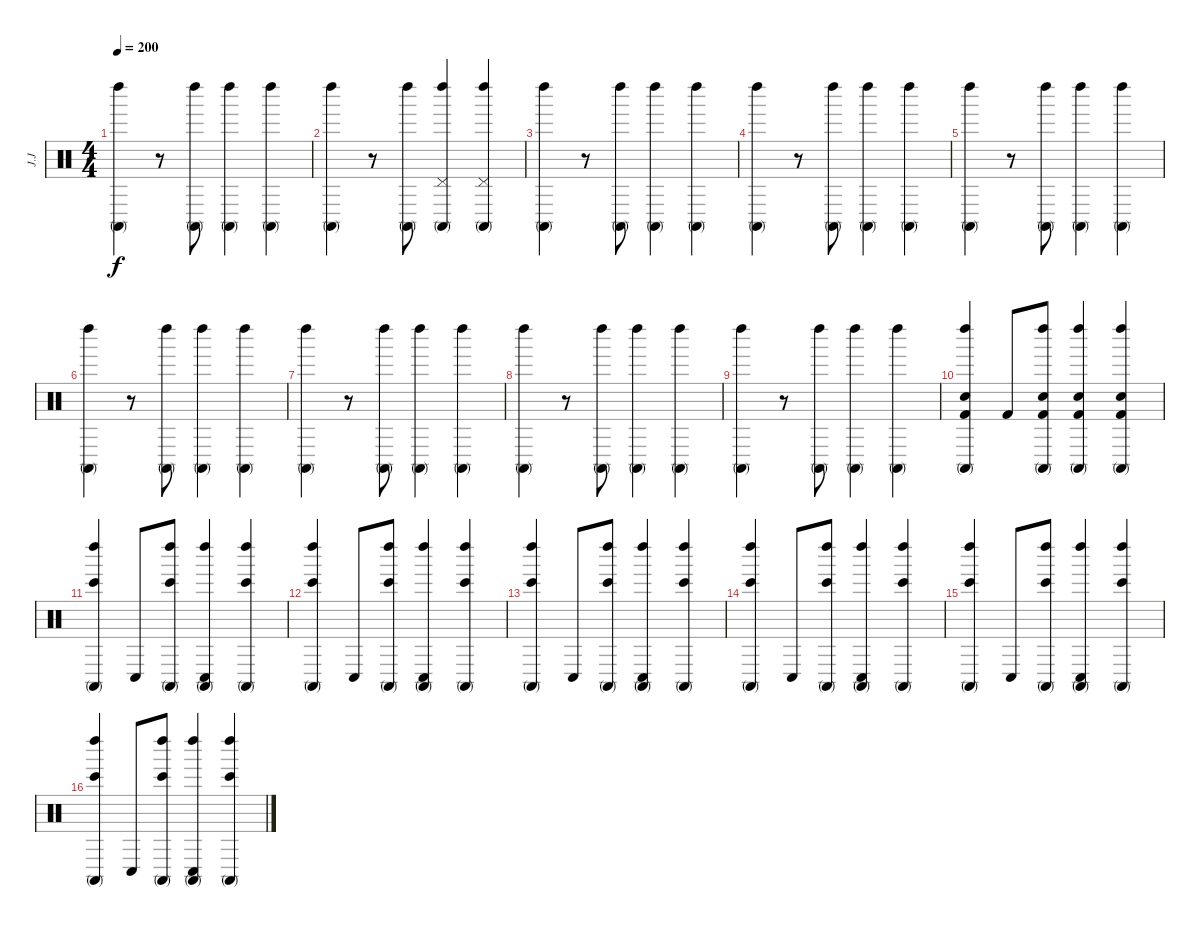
\track ("J.J" "J.J") {instrument percussion}
\staff {score}
\articulation defaults
\ts (4 4)
\tempo 200
\clef neutral
\ks c
("Conga high (mute)" "Left Maraca (hit)").4{dy f} r.8 ("Conga high (mute)" "Left Maraca (hit)").8 ("Conga high (mute)" "Left Maraca (hit)").4 ("Conga high (mute)" "Left Maraca (hit)").4 |
("Conga high (mute)" "Left Maraca (hit)").4 r.8 ("Conga high (mute)" "Left Maraca (hit)").8 ("Conga high (mute)" "Left Maraca (hit)" "Pedal Hi-Hat (hit)").4 ("Conga high (mute)" "Left Maraca (hit)" "Pedal Hi-Hat (hit)").4 |
("Conga high (mute)" "Left Maraca (hit)").4 r.8 ("Conga high (mute)" "Left Maraca (hit)").8 ("Conga high (mute)" "Left Maraca (hit)").4 ("Conga high (mute)" "Left Maraca (hit)").4 |
("Conga high (mute)" "Left Maraca (hit)").4 r.8 ("Conga high (mute)" "Left Maraca (hit)").8 ("Conga high (mute)" "Left Maraca (hit)").4 ("Conga high (mute)" "Left Maraca (hit)").4 |
("Conga high (mute)" "Left Maraca (hit)").4 r.8 ("Conga high (mute)" "Left Maraca (hit)").8 ("Conga high (mute)" "Left Maraca (hit)").4 ("Conga high (mute)" "Left Maraca (hit)").4 |
("Conga high (mute)" "Left Maraca (hit)").4 r.8 ("Conga high (mute)" "Left Maraca (hit)").8 ("Conga high (mute)" "Left Maraca (hit)").4 ("Conga high (mute)" "Left Maraca (hit)").4 |
("Conga high (mute)" "Left Maraca (hit)").4 r.8 ("Conga high (mute)" "Left Maraca (hit)").8 ("Conga high (mute)" "Left Maraca (hit)").4 ("Conga high (mute)" "Left Maraca (hit)").4 |
("Conga high (mute)" "Left Maraca (hit)").4 r.8 ("Conga high (mute)" "Left Maraca (hit)").8 ("Conga high (mute)" "Left Maraca (hit)").4 ("Conga high (mute)" "Left Maraca (hit)").4 |
("Conga high (mute)" "Left Maraca (hit)").4 r.8 ("Conga high (mute)" "Left Maraca (hit)").8 ("Conga high (mute)" "Left Maraca (hit)").4 ("Conga high (mute)" "Left Maraca (hit)").4 |
("Conga high (mute)" "Left Maraca (hit)" "Snare (hit) 2" "Kick (hit) 2").4 "Kick (hit) 2".8 ("Conga high (mute)" "Left Maraca (hit)" "Snare (hit) 2" "Kick (hit) 2").8 ("Conga high (mute)" "Left Maraca (hit)" "Snare (hit) 2" "Kick (hit) 2").4 ("Conga high (mute)" "Left Maraca (hit)" "Snare (hit) 2" "Kick (hit) 2").4 |
("Conga high (mute)" "Left Maraca (hit)" "Bongo High (hit)").4 "Conga low (hit)".8 ("Conga high (mute)" "Left Maraca (hit)" "Bongo High (hit)").8 ("Conga high (mute)" "Left Maraca (hit)" "Conga low (hit)").4 ("Conga high (mute)" "Left Maraca (hit)" "Bongo High (hit)").4 |
("Conga high (mute)" "Left Maraca (hit)" "Bongo High (hit)").4 "Conga low (hit)".8 ("Conga high (mute)" "Left Maraca (hit)" "Bongo High (hit)").8 ("Conga high (mute)" "Left Maraca (hit)" "Conga low (hit)").4 ("Conga high (mute)" "Left Maraca (hit)" "Bongo High (hit)").4 |
("Conga high (mute)" "Left Maraca (hit)" "Bongo High (hit)").4 "Conga low (hit)".8 ("Conga high (mute)" "Left Maraca (hit)" "Bongo High (hit)").8 ("Conga high (mute)" "Left Maraca (hit)" "Conga low (hit)").4 ("Conga high (mute)" "Left Maraca (hit)" "Bongo High (hit)").4 |
("Conga high (mute)" "Left Maraca (hit)" "Bongo High (hit)").4 "Conga low (hit)".8 ("Conga high (mute)" "Left Maraca (hit)" "Bongo High (hit)").8 ("Conga high (mute)" "Left Maraca (hit)" "Conga low (hit)").4 ("Conga high (mute)" "Left Maraca (hit)" "Bongo High (hit)").4 |
("Conga high (mute)" "Left Maraca (hit)" "Bongo High (hit)").4 "Conga low (hit)".8 ("Conga high (mute)" "Left Maraca (hit)" "Bongo High (hit)").8 ("Conga high (mute)" "Left Maraca (hit)" "Conga low (hit)").4 ("Conga high (mute)" "Left Maraca (hit)" "Bongo High (hit)").4 |
("Conga high (mute)" "Left Maraca (hit)" "Bongo High (hit)").4 "Conga low (hit)".8 ("Conga high (mute)" "Left Maraca (hit)" "Bongo High (hit)").8 ("Conga high (mute)" "Left Maraca (hit)" "Conga low (hit)").4 ("Conga high (mute)" "Left Maraca (hit)" "Bongo High (hit)").4
